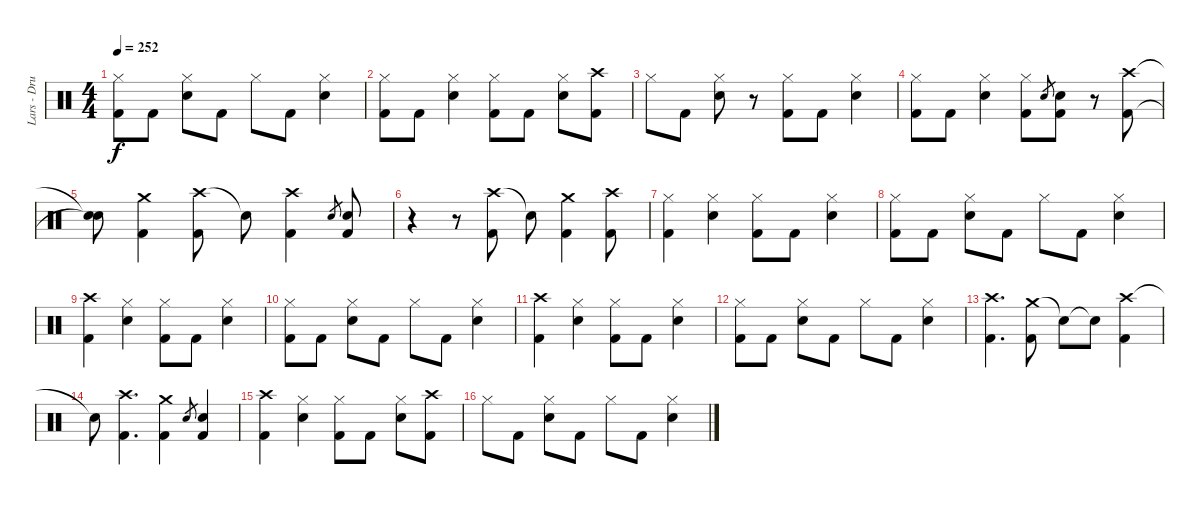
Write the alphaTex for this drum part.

\track ("Lars - Drums" "Lars - Dru") {instrument percussion}
\staff {score}
\articulation defaults
\ts (4 4)
\tempo 252
\clef neutral
\ks c
("Hi-Hat (closed)" "Kick (hit) 2").8{dy f} "Kick (hit) 2".8 ("Hi-Hat (closed)" "Electric Snare (hit)").8 "Kick (hit) 2".8 "Hi-Hat (closed)".8 "Kick (hit) 2".8 ("Hi-Hat (closed)" "Electric Snare (hit)").4 |
("Hi-Hat (closed)" "Kick (hit) 2").8 "Kick (hit) 2".8 ("Hi-Hat (closed)" "Electric Snare (hit)").4 ("Hi-Hat (closed)" "Kick (hit) 2").8 "Kick (hit) 2".8 ("Hi-Hat (closed)" "Electric Snare (hit)").8 ("Crash high (hit)" "Kick (hit) 2").8 |
"Hi-Hat (closed)".8 "Kick (hit) 2".8 ("Hi-Hat (closed)" "Electric Snare (hit)").8 r.8 ("Hi-Hat (closed)" "Kick (hit) 2").8 "Kick (hit) 2".8 ("Hi-Hat (closed)" "Electric Snare (hit)").4 |
("Hi-Hat (closed)" "Kick (hit) 2").8 "Kick (hit) 2".8 ("Hi-Hat (closed)" "Electric Snare (hit)").4 ("Hi-Hat (closed)" "Kick (hit) 2").8 "Electric Snare (hit)".8{gr} ("Electric Snare (hit)" "Kick (hit) 2").8 r.8 ("Crash high (hit)" "Kick (hit) 2").8 |
("Snare (hit)"{t} "Snare (hit)"{t}).8 ("Crash medium (hit)" "Kick (hit) 2").4 ("Crash high (hit)" "Kick (hit) 2").8 "Snare (hit)"{t}.8 ("Crash high (hit)" "Kick (hit) 2").4 "Electric Snare (hit)".8{gr} ("Electric Snare (hit)" "Kick (hit) 2").8 |
r.4 r.8 ("Crash high (hit)" "Kick (hit) 2").8 "Snare (hit)"{t}.8 ("Crash medium (hit)" "Kick (hit) 2").4 ("Crash high (hit)" "Kick (hit) 2").8 |
("Hi-Hat (closed)" "Kick (hit) 2").4 ("Hi-Hat (closed)" "Electric Snare (hit)").4 ("Hi-Hat (closed)" "Kick (hit) 2").8 "Kick (hit) 2".8 ("Hi-Hat (closed)" "Electric Snare (hit)").4 |
("Hi-Hat (closed)" "Kick (hit) 2").8 "Kick (hit) 2".8 ("Hi-Hat (closed)" "Electric Snare (hit)").8 "Kick (hit) 2".8 "Hi-Hat (closed)".8 "Kick (hit) 2".8 ("Hi-Hat (closed)" "Electric Snare (hit)").4 |
("Crash high (hit)" "Kick (hit) 2").4 ("Hi-Hat (closed)" "Electric Snare (hit)").4 ("Hi-Hat (closed)" "Kick (hit) 2").8 "Kick (hit) 2".8 ("Hi-Hat (closed)" "Electric Snare (hit)").4 |
("Hi-Hat (closed)" "Kick (hit) 2").8 "Kick (hit) 2".8 ("Hi-Hat (closed)" "Electric Snare (hit)").8 "Kick (hit) 2".8 "Hi-Hat (closed)".8 "Kick (hit) 2".8 ("Hi-Hat (closed)" "Electric Snare (hit)").4 |
("Crash high (hit)" "Kick (hit) 2").4 ("Hi-Hat (closed)" "Electric Snare (hit)").4 ("Hi-Hat (closed)" "Kick (hit) 2").8 "Kick (hit) 2".8 ("Hi-Hat (closed)" "Electric Snare (hit)").4 |
("Hi-Hat (closed)" "Kick (hit) 2").8 "Kick (hit) 2".8 ("Hi-Hat (closed)" "Electric Snare (hit)").8 "Kick (hit) 2".8 "Hi-Hat (closed)".8 "Kick (hit) 2".8 ("Hi-Hat (closed)" "Electric Snare (hit)").4 |
("Crash high (hit)" "Kick (hit) 2").4{d} ("Crash medium (hit)" "Kick (hit) 2").8 "Snare (hit)"{t}.8 "Snare (hit)"{t}.8 ("Crash high (hit)" "Kick (hit) 2").4 |
"Snare (hit)"{t}.8 ("Crash high (hit)" "Kick (hit) 2").4{d} ("Crash medium (hit)" "Kick (hit) 2").4 "Electric Snare (hit)".8{gr} ("Electric Snare (hit)" "Kick (hit) 2").4 |
("Crash high (hit)" "Kick (hit) 2").4 ("Hi-Hat (closed)" "Electric Snare (hit)").4 ("Hi-Hat (closed)" "Kick (hit) 2").8 "Kick (hit) 2".8 ("Hi-Hat (closed)" "Electric Snare (hit)").8 ("Crash high (hit)" "Kick (hit) 2").8 |
"Hi-Hat (closed)".8 "Kick (hit) 2".8 ("Hi-Hat (closed)" "Electric Snare (hit)").8 "Kick (hit) 2".8 "Hi-Hat (closed)".8 "Kick (hit) 2".8 ("Hi-Hat (closed)" "Electric Snare (hit)").4
